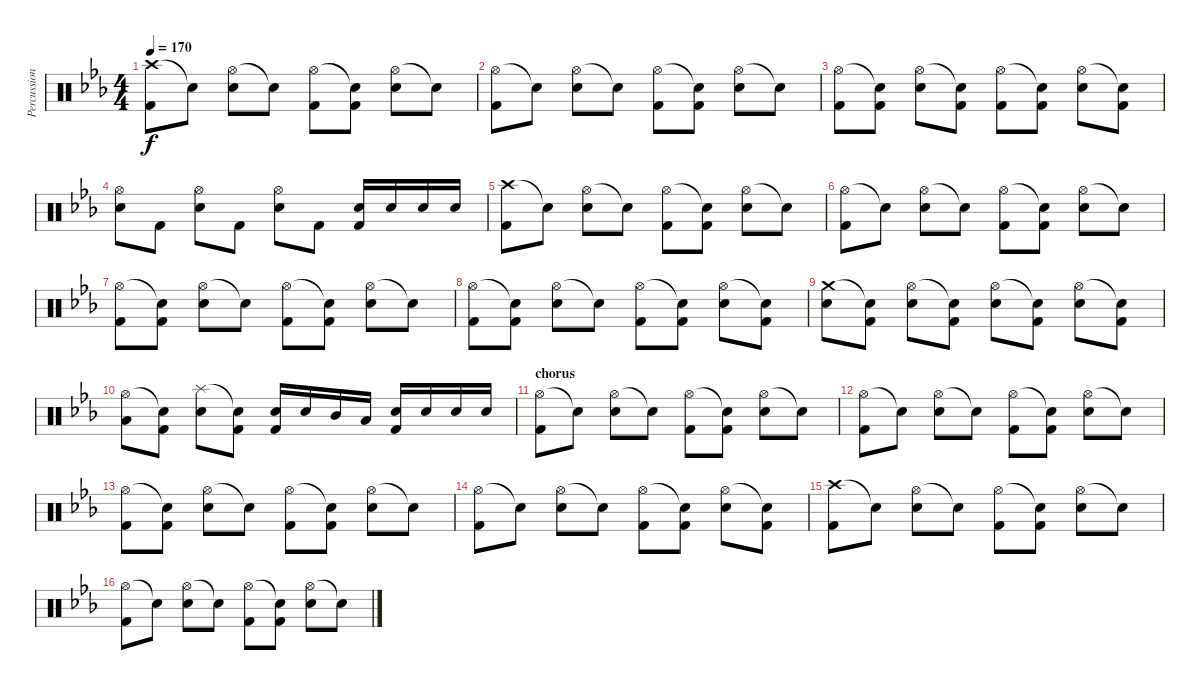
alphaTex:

\track ("Percussion" "Percussion") {instrument percussion}
\staff {score}
\articulation defaults
\ts (4 4)
\tempo 170
\clef neutral
\ks cminor
("Crash high (hit)" "Kick (hit) 2").8{dy f} "Snare (hit)"{t}.8 ("Hi-Hat (open)" "Electric Snare (hit)").8 "Snare (hit)"{t}.8 ("Hi-Hat (open)" "Kick (hit) 2").8 ("Snare (hit)"{t} "Kick (hit) 2").8 ("Hi-Hat (open)" "Electric Snare (hit)").8 "Snare (hit)"{t}.8 |
("Hi-Hat (open)" "Kick (hit) 2").8 "Snare (hit)"{t}.8 ("Hi-Hat (open)" "Electric Snare (hit)").8 "Snare (hit)"{t}.8 ("Hi-Hat (open)" "Kick (hit) 2").8 ("Snare (hit)"{t} "Kick (hit) 2").8 ("Hi-Hat (open)" "Electric Snare (hit)").8 "Snare (hit)"{t}.8 |
("Hi-Hat (open)" "Kick (hit) 2").8 ("Snare (hit)"{t} "Kick (hit) 2").8 ("Hi-Hat (open)" "Electric Snare (hit)").8 ("Snare (hit)"{t} "Kick (hit) 2").8 ("Hi-Hat (open)" "Kick (hit) 2").8 ("Snare (hit)"{t} "Kick (hit) 2").8 ("Hi-Hat (open)" "Electric Snare (hit)").8 ("Snare (hit)"{t} "Kick (hit) 2").8 |
("Hi-Hat (open)" "Electric Snare (hit)").8 "Kick (hit) 2".8 ("Hi-Hat (open)" "Electric Snare (hit)").8 "Kick (hit) 2".8 ("Hi-Hat (open)" "Electric Snare (hit)").8 "Kick (hit) 2".8 ("Electric Snare (hit)" "Kick (hit) 2").16 "Electric Snare (hit)".16 "Electric Snare (hit)".16 "Electric Snare (hit)".16 |
("Crash high (hit)" "Kick (hit) 2").8 "Snare (hit)"{t}.8 ("Hi-Hat (open)" "Electric Snare (hit)").8 "Snare (hit)"{t}.8 ("Hi-Hat (open)" "Kick (hit) 2").8 ("Snare (hit)"{t} "Kick (hit) 2").8 ("Hi-Hat (open)" "Electric Snare (hit)").8 "Snare (hit)"{t}.8 |
("Hi-Hat (open)" "Kick (hit) 2").8 "Snare (hit)"{t}.8 ("Hi-Hat (open)" "Electric Snare (hit)").8 "Snare (hit)"{t}.8 ("Hi-Hat (open)" "Kick (hit) 2").8 ("Snare (hit)"{t} "Kick (hit) 2").8 ("Hi-Hat (open)" "Electric Snare (hit)").8 "Snare (hit)"{t}.8 |
("Hi-Hat (open)" "Kick (hit) 2").8 ("Snare (hit)"{t} "Kick (hit) 2").8 ("Hi-Hat (open)" "Electric Snare (hit)").8 "Snare (hit)"{t}.8 ("Hi-Hat (open)" "Kick (hit) 2").8 ("Snare (hit)"{t} "Kick (hit) 2").8 ("Hi-Hat (open)" "Electric Snare (hit)").8 "Snare (hit)"{t}.8 |
("Hi-Hat (open)" "Kick (hit) 2").8 ("Snare (hit)"{t} "Kick (hit) 2").8 ("Hi-Hat (open)" "Electric Snare (hit)").8 "Snare (hit)"{t}.8 ("Hi-Hat (open)" "Kick (hit) 2").8 ("Snare (hit)"{t} "Kick (hit) 2").8 ("Hi-Hat (open)" "Electric Snare (hit)").8 ("Snare (hit)"{t} "Kick (hit) 2").8 |
("Crash medium (hit)" "Electric Snare (hit)").8 ("Snare (hit)"{t} "Kick (hit) 2").8 ("Hi-Hat (open)" "Electric Snare (hit)").8 ("Snare (hit)"{t} "Kick (hit) 2").8 ("Hi-Hat (open)" "Electric Snare (hit)").8 ("Snare (hit)"{t} "Kick (hit) 2").8 ("Hi-Hat (open)" "Electric Snare (hit)").8 ("Snare (hit)"{t} "Kick (hit) 2").8 |
("Hi-Hat (open)" "Low Floor Tom (hit)").8 ("Snare (hit)"{t} "Kick (hit) 2").8 ("Splash (hit)" "Electric Snare (hit)").8 ("Snare (hit)"{t} "Kick (hit) 2").8 ("Electric Snare (hit)" "Kick (hit) 2").16 "Electric Snare (hit)".16 "Mid Tom (hit)".16 "Low Tom (hit)".16 ("Electric Snare (hit)" "Kick (hit) 2").16 "Electric Snare (hit)".16 "Electric Snare (hit)".16 "Electric Snare (hit)".16 |
\section ("" "chorus")
("Hi-Hat (open)" "Kick (hit) 2").8 "Snare (hit)"{t}.8 ("Hi-Hat (open)" "Electric Snare (hit)").8 "Snare (hit)"{t}.8 ("Hi-Hat (open)" "Kick (hit) 2").8 ("Snare (hit)"{t} "Kick (hit) 2").8 ("Hi-Hat (open)" "Electric Snare (hit)").8 "Snare (hit)"{t}.8 |
("Hi-Hat (open)" "Kick (hit) 2").8 "Snare (hit)"{t}.8 ("Hi-Hat (open)" "Electric Snare (hit)").8 "Snare (hit)"{t}.8 ("Hi-Hat (open)" "Kick (hit) 2").8 ("Snare (hit)"{t} "Kick (hit) 2").8 ("Hi-Hat (open)" "Electric Snare (hit)").8 "Snare (hit)"{t}.8 |
("Hi-Hat (open)" "Kick (hit) 2").8 ("Snare (hit)"{t} "Kick (hit) 2").8 ("Hi-Hat (open)" "Electric Snare (hit)").8 "Snare (hit)"{t}.8 ("Hi-Hat (open)" "Kick (hit) 2").8 ("Snare (hit)"{t} "Kick (hit) 2").8 ("Hi-Hat (open)" "Electric Snare (hit)").8 "Snare (hit)"{t}.8 |
("Hi-Hat (open)" "Kick (hit) 2").8 "Snare (hit)"{t}.8 ("Hi-Hat (open)" "Electric Snare (hit)").8 "Snare (hit)"{t}.8 ("Hi-Hat (open)" "Kick (hit) 2").8 ("Snare (hit)"{t} "Kick (hit) 2").8 ("Hi-Hat (open)" "Electric Snare (hit)").8 ("Snare (hit)"{t} "Kick (hit) 2").8 |
("Crash high (hit)" "Kick (hit) 2").8 "Snare (hit)"{t}.8 ("Hi-Hat (open)" "Electric Snare (hit)").8 "Snare (hit)"{t}.8 ("Hi-Hat (open)" "Kick (hit) 2").8 ("Snare (hit)"{t} "Kick (hit) 2").8 ("Hi-Hat (open)" "Electric Snare (hit)").8 "Snare (hit)"{t}.8 |
("Hi-Hat (open)" "Kick (hit) 2").8 "Snare (hit)"{t}.8 ("Hi-Hat (open)" "Electric Snare (hit)").8 "Snare (hit)"{t}.8 ("Hi-Hat (open)" "Kick (hit) 2").8 ("Snare (hit)"{t} "Kick (hit) 2").8 ("Hi-Hat (open)" "Electric Snare (hit)").8 "Snare (hit)"{t}.8
